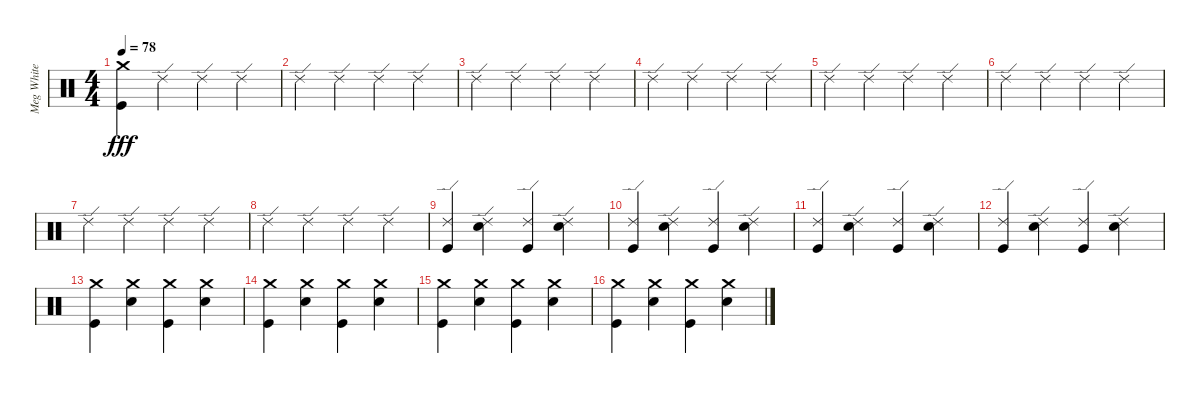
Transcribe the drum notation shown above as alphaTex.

\track ("Meg White" "Meg White") {instrument percussion}
\staff {score}
\articulation defaults
\ts (4 4)
\tempo 78
\clef neutral
\ks c
("Crash medium (hit)" "Kick (hit)").4{dy fff} "Ride (edge) 2".4 "Ride (edge) 2".4 "Ride (edge) 2".4 |
"Ride (edge) 2".4 "Ride (edge) 2".4 "Ride (edge) 2".4 "Ride (edge) 2".4 |
"Ride (edge) 2".4 "Ride (edge) 2".4 "Ride (edge) 2".4 "Ride (edge) 2".4 |
"Ride (edge) 2".4 "Ride (edge) 2".4 "Ride (edge) 2".4 "Ride (edge) 2".4 |
"Ride (edge) 2".4 "Ride (edge) 2".4 "Ride (edge) 2".4 "Ride (edge) 2".4 |
"Ride (edge) 2".4 "Ride (edge) 2".4 "Ride (edge) 2".4 "Ride (edge) 2".4 |
"Ride (edge) 2".4 "Ride (edge) 2".4 "Ride (edge) 2".4 "Ride (edge) 2".4 |
"Ride (edge) 2".4 "Ride (edge) 2".4 "Ride (edge) 2".4 "Ride (edge) 2".4 |
("Ride (edge) 2" "Kick (hit)").4 ("Ride (edge) 2" "Snare (hit) 2").4 ("Ride (edge) 2" "Kick (hit)").4 ("Ride (edge) 2" "Snare (hit) 2").4 |
("Ride (edge) 2" "Kick (hit)").4 ("Ride (edge) 2" "Snare (hit) 2").4 ("Ride (edge) 2" "Kick (hit)").4 ("Ride (edge) 2" "Snare (hit) 2").4 |
("Ride (edge) 2" "Kick (hit)").4 ("Ride (edge) 2" "Snare (hit) 2").4 ("Ride (edge) 2" "Kick (hit)").4 ("Ride (edge) 2" "Snare (hit) 2").4 |
("Ride (edge) 2" "Kick (hit)").4 ("Ride (edge) 2" "Snare (hit) 2").4 ("Ride (edge) 2" "Kick (hit)").4 ("Ride (edge) 2" "Snare (hit) 2").4 |
("Crash medium (hit)" "Kick (hit)").4 ("Crash medium (hit)" "Snare (hit) 2").4 ("Crash medium (hit)" "Kick (hit)").4 ("Crash medium (hit)" "Snare (hit) 2").4 |
("Crash medium (hit)" "Kick (hit)").4 ("Crash medium (hit)" "Snare (hit) 2").4 ("Crash medium (hit)" "Kick (hit)").4 ("Crash medium (hit)" "Snare (hit) 2").4 |
("Crash medium (hit)" "Kick (hit)").4 ("Crash medium (hit)" "Snare (hit) 2").4 ("Crash medium (hit)" "Kick (hit)").4 ("Crash medium (hit)" "Snare (hit) 2").4 |
("Crash medium (hit)" "Kick (hit)").4 ("Crash medium (hit)" "Snare (hit) 2").4 ("Crash medium (hit)" "Kick (hit)").4 ("Crash medium (hit)" "Snare (hit) 2").4
